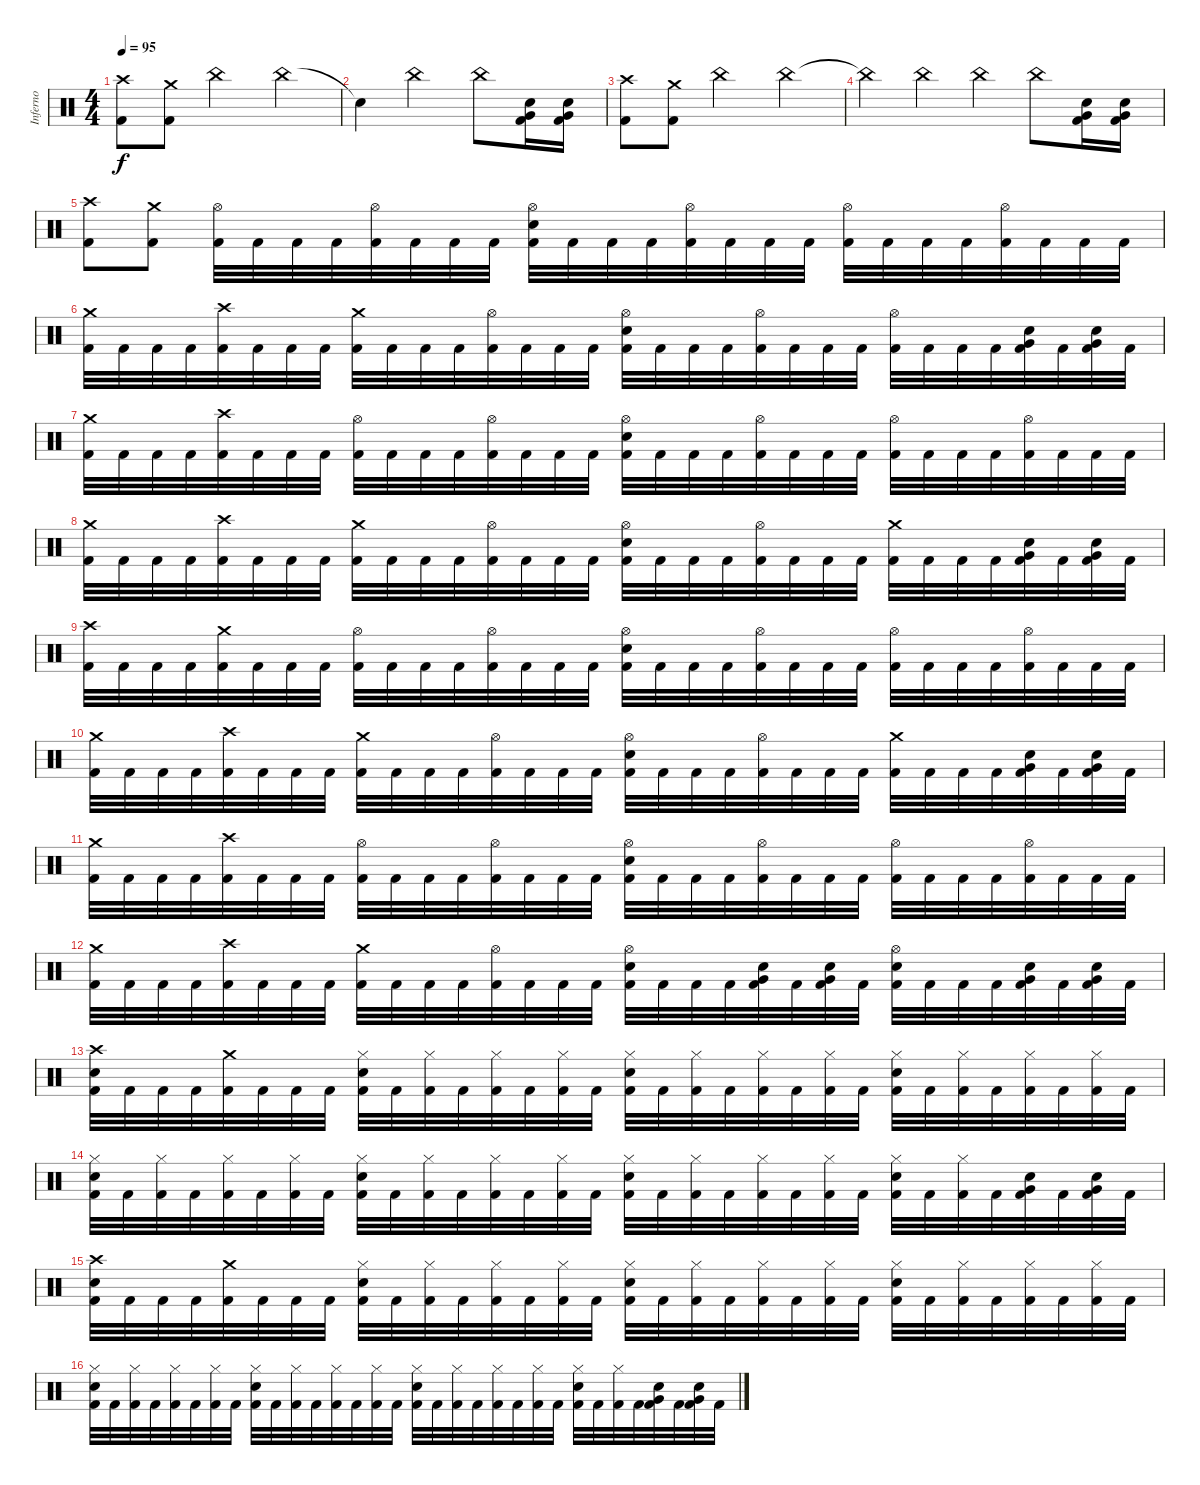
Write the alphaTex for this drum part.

\track ("Inferno" "Inferno") {instrument percussion}
\staff {score}
\articulation defaults
\ts (4 4)
\tempo 95
\clef neutral
\ks c
("Crash high (hit)" "Kick (hit) 2").8{dy f} ("Crash medium (hit)" "Kick (hit) 2").8 "China (hit)".2 "China (hit)".4 |
"Snare (hit)"{t}.4 "China (hit)".2 "China (hit)".8 ("Very Low Tom (hit)" "Electric Snare (hit)" "Kick (hit) 2").16 ("Very Low Tom (hit)" "Electric Snare (hit)" "Kick (hit) 2").16 |
("Crash high (hit)" "Kick (hit) 2").8 ("Crash medium (hit)" "Kick (hit) 2").8 "China (hit)".2 "China (hit)".4 |
"China (hit)"{t}.4 "China (hit)".4 "China (hit)".4 "China (hit)".8 ("Very Low Tom (hit)" "Electric Snare (hit)" "Kick (hit) 2").16 ("Very Low Tom (hit)" "Electric Snare (hit)" "Kick (hit) 2").16 |
("Crash high (hit)" "Kick (hit) 2").8 ("Crash medium (hit)" "Kick (hit) 2").8 ("Hi-Hat (open)" "Kick (hit) 2").32 "Kick (hit) 2".32 "Kick (hit) 2".32 "Kick (hit) 2".32 ("Hi-Hat (open)" "Kick (hit) 2").32 "Kick (hit) 2".32 "Kick (hit) 2".32 "Kick (hit) 2".32 ("Hi-Hat (open)" "Electric Snare (hit)" "Kick (hit) 2").32 "Kick (hit) 2".32 "Kick (hit) 2".32 "Kick (hit) 2".32 ("Hi-Hat (open)" "Kick (hit) 2").32 "Kick (hit) 2".32 "Kick (hit) 2".32 "Kick (hit) 2".32 ("Hi-Hat (open)" "Kick (hit) 2").32 "Kick (hit) 2".32 "Kick (hit) 2".32 "Kick (hit) 2".32 ("Hi-Hat (open)" "Kick (hit) 2").32 "Kick (hit) 2".32 "Kick (hit) 2".32 "Kick (hit) 2".32 |
("Crash medium (hit)" "Kick (hit) 2").32 "Kick (hit) 2".32 "Kick (hit) 2".32 "Kick (hit) 2".32 ("Crash high (hit)" "Kick (hit) 2").32 "Kick (hit) 2".32 "Kick (hit) 2".32 "Kick (hit) 2".32 ("Crash medium (hit)" "Kick (hit) 2").32 "Kick (hit) 2".32 "Kick (hit) 2".32 "Kick (hit) 2".32 ("Hi-Hat (open)" "Kick (hit) 2").32 "Kick (hit) 2".32 "Kick (hit) 2".32 "Kick (hit) 2".32 ("Hi-Hat (open)" "Electric Snare (hit)" "Kick (hit) 2").32 "Kick (hit) 2".32 "Kick (hit) 2".32 "Kick (hit) 2".32 ("Hi-Hat (open)" "Kick (hit) 2").32 "Kick (hit) 2".32 "Kick (hit) 2".32 "Kick (hit) 2".32 ("Hi-Hat (open)" "Kick (hit) 2").32 "Kick (hit) 2".32 "Kick (hit) 2".32 "Kick (hit) 2".32 ("Very Low Tom (hit)" "Electric Snare (hit)" "Kick (hit) 2").32 "Kick (hit) 2".32 ("Very Low Tom (hit)" "Electric Snare (hit)" "Kick (hit) 2").32 "Kick (hit) 2".32 |
("Crash medium (hit)" "Kick (hit) 2").32 "Kick (hit) 2".32 "Kick (hit) 2".32 "Kick (hit) 2".32 ("Crash high (hit)" "Kick (hit) 2").32 "Kick (hit) 2".32 "Kick (hit) 2".32 "Kick (hit) 2".32 ("Hi-Hat (open)" "Kick (hit) 2").32 "Kick (hit) 2".32 "Kick (hit) 2".32 "Kick (hit) 2".32 ("Hi-Hat (open)" "Kick (hit) 2").32 "Kick (hit) 2".32 "Kick (hit) 2".32 "Kick (hit) 2".32 ("Hi-Hat (open)" "Electric Snare (hit)" "Kick (hit) 2").32 "Kick (hit) 2".32 "Kick (hit) 2".32 "Kick (hit) 2".32 ("Hi-Hat (open)" "Kick (hit) 2").32 "Kick (hit) 2".32 "Kick (hit) 2".32 "Kick (hit) 2".32 ("Hi-Hat (open)" "Kick (hit) 2").32 "Kick (hit) 2".32 "Kick (hit) 2".32 "Kick (hit) 2".32 ("Hi-Hat (open)" "Kick (hit) 2").32 "Kick (hit) 2".32 "Kick (hit) 2".32 "Kick (hit) 2".32 |
("Crash medium (hit)" "Kick (hit) 2").32 "Kick (hit) 2".32 "Kick (hit) 2".32 "Kick (hit) 2".32 ("Crash high (hit)" "Kick (hit) 2").32 "Kick (hit) 2".32 "Kick (hit) 2".32 "Kick (hit) 2".32 ("Crash medium (hit)" "Kick (hit) 2").32 "Kick (hit) 2".32 "Kick (hit) 2".32 "Kick (hit) 2".32 ("Hi-Hat (open)" "Kick (hit) 2").32 "Kick (hit) 2".32 "Kick (hit) 2".32 "Kick (hit) 2".32 ("Hi-Hat (open)" "Electric Snare (hit)" "Kick (hit) 2").32 "Kick (hit) 2".32 "Kick (hit) 2".32 "Kick (hit) 2".32 ("Hi-Hat (open)" "Kick (hit) 2").32 "Kick (hit) 2".32 "Kick (hit) 2".32 "Kick (hit) 2".32 ("Crash medium (hit)" "Kick (hit) 2").32 "Kick (hit) 2".32 "Kick (hit) 2".32 "Kick (hit) 2".32 ("Very Low Tom (hit)" "Electric Snare (hit)" "Kick (hit) 2").32 "Kick (hit) 2".32 ("Very Low Tom (hit)" "Electric Snare (hit)" "Kick (hit) 2").32 "Kick (hit) 2".32 |
("Crash high (hit)" "Kick (hit) 2").32 "Kick (hit) 2".32 "Kick (hit) 2".32 "Kick (hit) 2".32 ("Crash medium (hit)" "Kick (hit) 2").32 "Kick (hit) 2".32 "Kick (hit) 2".32 "Kick (hit) 2".32 ("Hi-Hat (open)" "Kick (hit) 2").32 "Kick (hit) 2".32 "Kick (hit) 2".32 "Kick (hit) 2".32 ("Hi-Hat (open)" "Kick (hit) 2").32 "Kick (hit) 2".32 "Kick (hit) 2".32 "Kick (hit) 2".32 ("Hi-Hat (open)" "Electric Snare (hit)" "Kick (hit) 2").32 "Kick (hit) 2".32 "Kick (hit) 2".32 "Kick (hit) 2".32 ("Hi-Hat (open)" "Kick (hit) 2").32 "Kick (hit) 2".32 "Kick (hit) 2".32 "Kick (hit) 2".32 ("Hi-Hat (open)" "Kick (hit) 2").32 "Kick (hit) 2".32 "Kick (hit) 2".32 "Kick (hit) 2".32 ("Hi-Hat (open)" "Kick (hit) 2").32 "Kick (hit) 2".32 "Kick (hit) 2".32 "Kick (hit) 2".32 |
("Crash medium (hit)" "Kick (hit) 2").32 "Kick (hit) 2".32 "Kick (hit) 2".32 "Kick (hit) 2".32 ("Crash high (hit)" "Kick (hit) 2").32 "Kick (hit) 2".32 "Kick (hit) 2".32 "Kick (hit) 2".32 ("Crash medium (hit)" "Kick (hit) 2").32 "Kick (hit) 2".32 "Kick (hit) 2".32 "Kick (hit) 2".32 ("Hi-Hat (open)" "Kick (hit) 2").32 "Kick (hit) 2".32 "Kick (hit) 2".32 "Kick (hit) 2".32 ("Hi-Hat (open)" "Electric Snare (hit)" "Kick (hit) 2").32 "Kick (hit) 2".32 "Kick (hit) 2".32 "Kick (hit) 2".32 ("Hi-Hat (open)" "Kick (hit) 2").32 "Kick (hit) 2".32 "Kick (hit) 2".32 "Kick (hit) 2".32 ("Crash medium (hit)" "Kick (hit) 2").32 "Kick (hit) 2".32 "Kick (hit) 2".32 "Kick (hit) 2".32 ("Very Low Tom (hit)" "Electric Snare (hit)" "Kick (hit) 2").32 "Kick (hit) 2".32 ("Very Low Tom (hit)" "Electric Snare (hit)" "Kick (hit) 2").32 "Kick (hit) 2".32 |
("Crash medium (hit)" "Kick (hit) 2").32 "Kick (hit) 2".32 "Kick (hit) 2".32 "Kick (hit) 2".32 ("Crash high (hit)" "Kick (hit) 2").32 "Kick (hit) 2".32 "Kick (hit) 2".32 "Kick (hit) 2".32 ("Hi-Hat (open)" "Kick (hit) 2").32 "Kick (hit) 2".32 "Kick (hit) 2".32 "Kick (hit) 2".32 ("Hi-Hat (open)" "Kick (hit) 2").32 "Kick (hit) 2".32 "Kick (hit) 2".32 "Kick (hit) 2".32 ("Hi-Hat (open)" "Electric Snare (hit)" "Kick (hit) 2").32 "Kick (hit) 2".32 "Kick (hit) 2".32 "Kick (hit) 2".32 ("Hi-Hat (open)" "Kick (hit) 2").32 "Kick (hit) 2".32 "Kick (hit) 2".32 "Kick (hit) 2".32 ("Hi-Hat (open)" "Kick (hit) 2").32 "Kick (hit) 2".32 "Kick (hit) 2".32 "Kick (hit) 2".32 ("Hi-Hat (open)" "Kick (hit) 2").32 "Kick (hit) 2".32 "Kick (hit) 2".32 "Kick (hit) 2".32 |
("Crash medium (hit)" "Kick (hit) 2").32 "Kick (hit) 2".32 "Kick (hit) 2".32 "Kick (hit) 2".32 ("Crash high (hit)" "Kick (hit) 2").32 "Kick (hit) 2".32 "Kick (hit) 2".32 "Kick (hit) 2".32 ("Crash medium (hit)" "Kick (hit) 2").32 "Kick (hit) 2".32 "Kick (hit) 2".32 "Kick (hit) 2".32 ("Hi-Hat (open)" "Kick (hit) 2").32 "Kick (hit) 2".32 "Kick (hit) 2".32 "Kick (hit) 2".32 ("Hi-Hat (open)" "Electric Snare (hit)" "Kick (hit) 2").32 "Kick (hit) 2".32 "Kick (hit) 2".32 "Kick (hit) 2".32 ("Very Low Tom (hit)" "Electric Snare (hit)" "Kick (hit) 2").32 "Kick (hit) 2".32 ("Very Low Tom (hit)" "Electric Snare (hit)" "Kick (hit) 2").32 "Kick (hit) 2".32 ("Hi-Hat (open)" "Electric Snare (hit)" "Kick (hit) 2").32 "Kick (hit) 2".32 "Kick (hit) 2".32 "Kick (hit) 2".32 ("Very Low Tom (hit)" "Electric Snare (hit)" "Kick (hit) 2").32 "Kick (hit) 2".32 ("Very Low Tom (hit)" "Electric Snare (hit)" "Kick (hit) 2").32 "Kick (hit) 2".32 |
("Crash high (hit)" "Electric Snare (hit)" "Kick (hit) 2").32 "Kick (hit) 2".32 "Kick (hit) 2".32 "Kick (hit) 2".32 ("Crash medium (hit)" "Kick (hit) 2").32 "Kick (hit) 2".32 "Kick (hit) 2".32 "Kick (hit) 2".32 ("Hi-Hat (closed)" "Electric Snare (hit)" "Kick (hit) 2").32 "Kick (hit) 2".32 ("Hi-Hat (closed)" "Kick (hit) 2").32 "Kick (hit) 2".32 ("Hi-Hat (closed)" "Kick (hit) 2").32 "Kick (hit) 2".32 ("Hi-Hat (closed)" "Kick (hit) 2").32 "Kick (hit) 2".32 ("Hi-Hat (closed)" "Electric Snare (hit)" "Kick (hit) 2").32 "Kick (hit) 2".32 ("Hi-Hat (closed)" "Kick (hit) 2").32 "Kick (hit) 2".32 ("Hi-Hat (closed)" "Kick (hit) 2").32 "Kick (hit) 2".32 ("Hi-Hat (closed)" "Kick (hit) 2").32 "Kick (hit) 2".32 ("Hi-Hat (closed)" "Electric Snare (hit)" "Kick (hit) 2").32 "Kick (hit) 2".32 ("Hi-Hat (closed)" "Kick (hit) 2").32 "Kick (hit) 2".32 ("Hi-Hat (closed)" "Kick (hit) 2").32 "Kick (hit) 2".32 ("Hi-Hat (closed)" "Kick (hit) 2").32 "Kick (hit) 2".32 |
("Hi-Hat (closed)" "Electric Snare (hit)" "Kick (hit) 2").32 "Kick (hit) 2".32 ("Hi-Hat (closed)" "Kick (hit) 2").32 "Kick (hit) 2".32 ("Hi-Hat (closed)" "Kick (hit) 2").32 "Kick (hit) 2".32 ("Hi-Hat (closed)" "Kick (hit) 2").32 "Kick (hit) 2".32 ("Hi-Hat (closed)" "Electric Snare (hit)" "Kick (hit) 2").32 "Kick (hit) 2".32 ("Hi-Hat (closed)" "Kick (hit) 2").32 "Kick (hit) 2".32 ("Hi-Hat (closed)" "Kick (hit) 2").32 "Kick (hit) 2".32 ("Hi-Hat (closed)" "Kick (hit) 2").32 "Kick (hit) 2".32 ("Hi-Hat (closed)" "Electric Snare (hit)" "Kick (hit) 2").32 "Kick (hit) 2".32 ("Hi-Hat (closed)" "Kick (hit) 2").32 "Kick (hit) 2".32 ("Hi-Hat (closed)" "Kick (hit) 2").32 "Kick (hit) 2".32 ("Hi-Hat (closed)" "Kick (hit) 2").32 "Kick (hit) 2".32 ("Hi-Hat (closed)" "Electric Snare (hit)" "Kick (hit) 2").32 "Kick (hit) 2".32 ("Hi-Hat (closed)" "Kick (hit) 2").32 "Kick (hit) 2".32 ("Very Low Tom (hit)" "Electric Snare (hit)" "Kick (hit) 2").32 "Kick (hit) 2".32 ("Very Low Tom (hit)" "Electric Snare (hit)" "Kick (hit) 2").32 "Kick (hit) 2".32 |
("Crash high (hit)" "Electric Snare (hit)" "Kick (hit) 2").32 "Kick (hit) 2".32 "Kick (hit) 2".32 "Kick (hit) 2".32 ("Crash medium (hit)" "Kick (hit) 2").32 "Kick (hit) 2".32 "Kick (hit) 2".32 "Kick (hit) 2".32 ("Hi-Hat (closed)" "Electric Snare (hit)" "Kick (hit) 2").32 "Kick (hit) 2".32 ("Hi-Hat (closed)" "Kick (hit) 2").32 "Kick (hit) 2".32 ("Hi-Hat (closed)" "Kick (hit) 2").32 "Kick (hit) 2".32 ("Hi-Hat (closed)" "Kick (hit) 2").32 "Kick (hit) 2".32 ("Hi-Hat (closed)" "Electric Snare (hit)" "Kick (hit) 2").32 "Kick (hit) 2".32 ("Hi-Hat (closed)" "Kick (hit) 2").32 "Kick (hit) 2".32 ("Hi-Hat (closed)" "Kick (hit) 2").32 "Kick (hit) 2".32 ("Hi-Hat (closed)" "Kick (hit) 2").32 "Kick (hit) 2".32 ("Hi-Hat (closed)" "Electric Snare (hit)" "Kick (hit) 2").32 "Kick (hit) 2".32 ("Hi-Hat (closed)" "Kick (hit) 2").32 "Kick (hit) 2".32 ("Hi-Hat (closed)" "Kick (hit) 2").32 "Kick (hit) 2".32 ("Hi-Hat (closed)" "Kick (hit) 2").32 "Kick (hit) 2".32 |
("Hi-Hat (closed)" "Electric Snare (hit)" "Kick (hit) 2").32 "Kick (hit) 2".32 ("Hi-Hat (closed)" "Kick (hit) 2").32 "Kick (hit) 2".32 ("Hi-Hat (closed)" "Kick (hit) 2").32 "Kick (hit) 2".32 ("Hi-Hat (closed)" "Kick (hit) 2").32 "Kick (hit) 2".32 ("Hi-Hat (closed)" "Electric Snare (hit)" "Kick (hit) 2").32 "Kick (hit) 2".32 ("Hi-Hat (closed)" "Kick (hit) 2").32 "Kick (hit) 2".32 ("Hi-Hat (closed)" "Kick (hit) 2").32 "Kick (hit) 2".32 ("Hi-Hat (closed)" "Kick (hit) 2").32 "Kick (hit) 2".32 ("Hi-Hat (closed)" "Electric Snare (hit)" "Kick (hit) 2").32 "Kick (hit) 2".32 ("Hi-Hat (closed)" "Kick (hit) 2").32 "Kick (hit) 2".32 ("Hi-Hat (closed)" "Kick (hit) 2").32 "Kick (hit) 2".32 ("Hi-Hat (closed)" "Kick (hit) 2").32 "Kick (hit) 2".32 ("Hi-Hat (closed)" "Electric Snare (hit)" "Kick (hit) 2").32 "Kick (hit) 2".32 ("Hi-Hat (closed)" "Kick (hit) 2").32 "Kick (hit) 2".32 ("Very Low Tom (hit)" "Electric Snare (hit)" "Kick (hit) 2").32 "Kick (hit) 2".32 ("Very Low Tom (hit)" "Electric Snare (hit)" "Kick (hit) 2").32 "Kick (hit) 2".32
